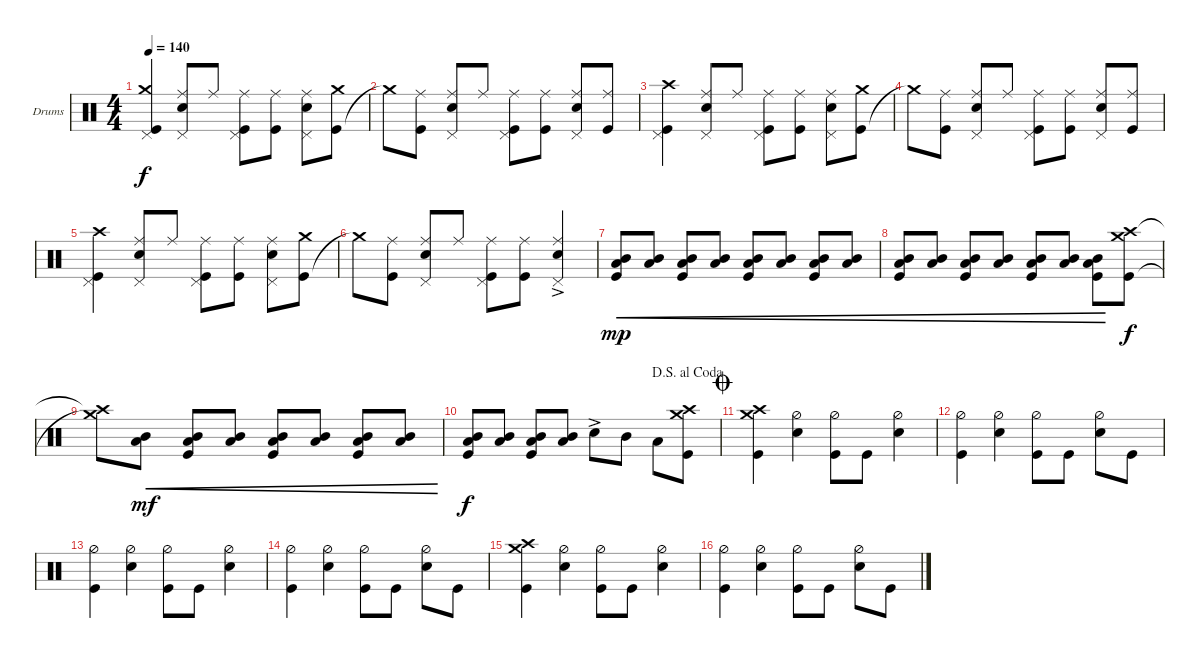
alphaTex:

\defaultSystemsLayout 4
\bracketExtendMode groupsimilarinstruments
\firstSystemTrackNameOrientation horizontal
\otherSystemsTrackNameOrientation horizontal
\track ("Steve" "Drums") {instrument percussion}
\staff {score}
\articulation defaults
\ts (4 4)
\tempo 140
\clef neutral
\ks c
("Kick (hit)" "Crash medium (hit)" "Pedal Hi-Hat (hit)").4{dy f} ("Snare (hit) 2" "Ride (middle)" "Pedal Hi-Hat (hit)").8 "Ride (middle)".8 ("Kick (hit)" "Ride (middle)" "Pedal Hi-Hat (hit)").8 ("Kick (hit)" "Ride (middle)").8 ("Snare (hit) 2" "Ride (middle)" "Pedal Hi-Hat (hit)").8 ("Kick (hit)" "Crash medium (hit)").8 |
"Crash medium (hit)"{t}.8 ("Kick (hit)" "Ride (middle)").8 ("Snare (hit) 2" "Ride (middle)" "Pedal Hi-Hat (hit)").8 "Ride (middle)".8 ("Kick (hit)" "Ride (middle)" "Pedal Hi-Hat (hit)").8 ("Kick (hit)" "Ride (middle)").8 ("Snare (hit) 2" "Ride (middle)" "Pedal Hi-Hat (hit)").8 ("Ride (middle)" "Kick (hit)").8 |
("Kick (hit)" "Crash high (hit)" "Pedal Hi-Hat (hit)").4 ("Snare (hit) 2" "Ride (middle)" "Pedal Hi-Hat (hit)").8 "Ride (middle)".8 ("Kick (hit)" "Ride (middle)" "Pedal Hi-Hat (hit)").8 ("Kick (hit)" "Ride (middle)").8 ("Snare (hit) 2" "Ride (middle)" "Pedal Hi-Hat (hit)").8 ("Kick (hit)" "Crash medium (hit)").8 |
"Crash medium (hit)"{t}.8 ("Kick (hit)" "Ride (middle)").8 ("Snare (hit) 2" "Ride (middle)" "Pedal Hi-Hat (hit)").8 "Ride (middle)".8 ("Kick (hit)" "Ride (middle)" "Pedal Hi-Hat (hit)").8 ("Kick (hit)" "Ride (middle)").8 ("Snare (hit) 2" "Ride (middle)" "Pedal Hi-Hat (hit)").8 ("Ride (middle)" "Kick (hit)").8 |
("Kick (hit)" "Crash high (hit)" "Pedal Hi-Hat (hit)").4 ("Snare (hit) 2" "Ride (middle)" "Pedal Hi-Hat (hit)").8 "Ride (middle)".8 ("Kick (hit)" "Ride (middle)" "Pedal Hi-Hat (hit)").8 ("Kick (hit)" "Ride (middle)").8 ("Snare (hit) 2" "Ride (middle)" "Pedal Hi-Hat (hit)").8 ("Kick (hit)" "Crash medium (hit)").8 |
"Crash medium (hit)"{t}.8 ("Kick (hit)" "Ride (middle)").8 ("Snare (hit) 2" "Ride (middle)" "Pedal Hi-Hat (hit)").8 "Ride (middle)".8 ("Kick (hit)" "Ride (middle)" "Pedal Hi-Hat (hit)").8 ("Kick (hit)" "Ride (middle)").8 ("Snare (hit) 2"{ac} "Pedal Hi-Hat (hit)" "Ride (middle)").4 |
("Mid Tom (hit)" "Kick (hit)" "Low Tom (hit)").8{cre dy mp} ("Mid Tom (hit)" "Low Tom (hit)").8{cre} ("Mid Tom (hit)" "Kick (hit)" "Low Tom (hit)").8{cre} ("Mid Tom (hit)" "Low Tom (hit)").8{cre} ("Mid Tom (hit)" "Kick (hit)" "Low Tom (hit)").8{cre} ("Mid Tom (hit)" "Low Tom (hit)").8{cre} ("Mid Tom (hit)" "Kick (hit)" "Low Tom (hit)").8{cre} ("Mid Tom (hit)" "Low Tom (hit)").8{cre} |
("Mid Tom (hit)" "Kick (hit)" "Low Tom (hit)").8{cre} ("Mid Tom (hit)" "Low Tom (hit)").8{cre} ("Mid Tom (hit)" "Kick (hit)" "Low Tom (hit)").8{cre} ("Mid Tom (hit)" "Low Tom (hit)").8{cre} ("Mid Tom (hit)" "Kick (hit)" "Low Tom (hit)").8{cre} ("Mid Tom (hit)" "Low Tom (hit)").8{cre} ("Mid Tom (hit)" "Kick (hit)" "Low Tom (hit)").8{cre} ("Kick (hit)" "Crash high (hit)" "Crash medium (hit)").8{dy f} |
("Crash medium (hit)"{t} "Crash high (hit)"{t}).8 ("Mid Tom (hit)" "Low Tom (hit)").8{cre dy mf} ("Mid Tom (hit)" "Kick (hit)" "Low Tom (hit)").8{cre} ("Mid Tom (hit)" "Low Tom (hit)").8{cre} ("Mid Tom (hit)" "Kick (hit)" "Low Tom (hit)").8{cre} ("Mid Tom (hit)" "Low Tom (hit)").8{cre} ("Mid Tom (hit)" "Kick (hit)" "Low Tom (hit)").8{cre} ("Mid Tom (hit)" "Low Tom (hit)").8{cre} |
\jump dalsegnoalcoda
("Mid Tom (hit)" "Kick (hit)" "Low Tom (hit)").8{dy f} ("Mid Tom (hit)" "Low Tom (hit)").8 ("Mid Tom (hit)" "Kick (hit)" "Low Tom (hit)").8 ("Mid Tom (hit)" "Low Tom (hit)").8 "Snare (hit) 2"{ac}.8 "Mid Tom (hit)".8 "Low Tom (hit)".8 ("Kick (hit)" "Crash high (hit)" "Crash medium (hit)").8 |
\jump coda
("Kick (hit)" "Crash high (hit)" "Crash medium (hit)").4 ("Snare (hit) 2" "Hi-Hat (half)").4 ("Kick (hit)" "Hi-Hat (half)").8 "Kick (hit)".8 ("Snare (hit) 2" "Hi-Hat (half)").4 |
("Kick (hit)" "Hi-Hat (half)").4 ("Snare (hit) 2" "Hi-Hat (half)").4 ("Kick (hit)" "Hi-Hat (half)").8 "Kick (hit)".8 ("Snare (hit) 2" "Hi-Hat (half)").8 "Kick (hit)".8 |
("Kick (hit)" "Hi-Hat (half)").4 ("Snare (hit) 2" "Hi-Hat (half)").4 ("Kick (hit)" "Hi-Hat (half)").8 "Kick (hit)".8 ("Snare (hit) 2" "Hi-Hat (half)").4 |
("Kick (hit)" "Hi-Hat (half)").4 ("Snare (hit) 2" "Hi-Hat (half)").4 ("Kick (hit)" "Hi-Hat (half)").8 "Kick (hit)".8 ("Snare (hit) 2" "Hi-Hat (half)").8 "Kick (hit)".8 |
("Kick (hit)" "Crash high (hit)" "Crash medium (hit)").4 ("Snare (hit) 2" "Hi-Hat (half)").4 ("Kick (hit)" "Hi-Hat (half)").8 "Kick (hit)".8 ("Snare (hit) 2" "Hi-Hat (half)").4 |
("Kick (hit)" "Hi-Hat (half)").4 ("Snare (hit) 2" "Hi-Hat (half)").4 ("Kick (hit)" "Hi-Hat (half)").8 "Kick (hit)".8 ("Snare (hit) 2" "Hi-Hat (half)").8 "Kick (hit)".8
